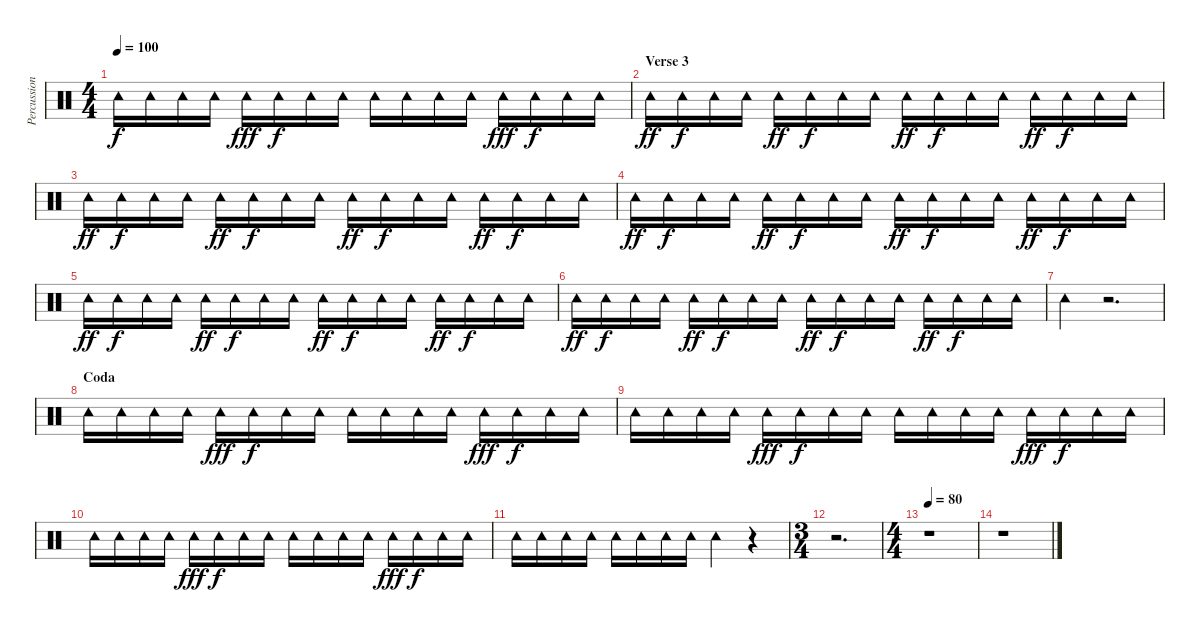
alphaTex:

\track ("Percussion" "Percussion") {instrument percussion}
\staff {score}
\articulation defaults
\ts (4 4)
\tempo 100
\clef neutral
\ks c "Tambourine (hit)".16{dy f} "Tambourine (hit)".16 "Tambourine (hit)".16 "Tambourine (hit)".16 "Tambourine (hit)".16{dy fff} "Tambourine (hit)".16{dy f} "Tambourine (hit)".16 "Tambourine (hit)".16 "Tambourine (hit)".16 "Tambourine (hit)".16 "Tambourine (hit)".16 "Tambourine (hit)".16 "Tambourine (hit)".16{dy fff} "Tambourine (hit)".16{dy f} "Tambourine (hit)".16 "Tambourine (hit)".16
|
\section ("" "Verse 3")
"Tambourine (hit)".16{dy ff} "Tambourine (hit)".16{dy f} "Tambourine (hit)".16 "Tambourine (hit)".16 "Tambourine (hit)".16{dy ff} "Tambourine (hit)".16{dy f} "Tambourine (hit)".16 "Tambourine (hit)".16 "Tambourine (hit)".16{dy ff} "Tambourine (hit)".16{dy f} "Tambourine (hit)".16 "Tambourine (hit)".16 "Tambourine (hit)".16{dy ff} "Tambourine (hit)".16{dy f} "Tambourine (hit)".16 "Tambourine (hit)".16 |
"Tambourine (hit)".16{dy ff} "Tambourine (hit)".16{dy f} "Tambourine (hit)".16 "Tambourine (hit)".16 "Tambourine (hit)".16{dy ff} "Tambourine (hit)".16{dy f} "Tambourine (hit)".16 "Tambourine (hit)".16 "Tambourine (hit)".16{dy ff} "Tambourine (hit)".16{dy f} "Tambourine (hit)".16 "Tambourine (hit)".16 "Tambourine (hit)".16{dy ff} "Tambourine (hit)".16{dy f} "Tambourine (hit)".16 "Tambourine (hit)".16 |
"Tambourine (hit)".16{dy ff} "Tambourine (hit)".16{dy f} "Tambourine (hit)".16 "Tambourine (hit)".16 "Tambourine (hit)".16{dy ff} "Tambourine (hit)".16{dy f} "Tambourine (hit)".16 "Tambourine (hit)".16 "Tambourine (hit)".16{dy ff} "Tambourine (hit)".16{dy f} "Tambourine (hit)".16 "Tambourine (hit)".16 "Tambourine (hit)".16{dy ff} "Tambourine (hit)".16{dy f} "Tambourine (hit)".16 "Tambourine (hit)".16 |
"Tambourine (hit)".16{dy ff} "Tambourine (hit)".16{dy f} "Tambourine (hit)".16 "Tambourine (hit)".16 "Tambourine (hit)".16{dy ff} "Tambourine (hit)".16{dy f} "Tambourine (hit)".16 "Tambourine (hit)".16 "Tambourine (hit)".16{dy ff} "Tambourine (hit)".16{dy f} "Tambourine (hit)".16 "Tambourine (hit)".16 "Tambourine (hit)".16{dy ff} "Tambourine (hit)".16{dy f} "Tambourine (hit)".16 "Tambourine (hit)".16 |
"Tambourine (hit)".16{dy ff} "Tambourine (hit)".16{dy f} "Tambourine (hit)".16 "Tambourine (hit)".16 "Tambourine (hit)".16{dy ff} "Tambourine (hit)".16{dy f} "Tambourine (hit)".16 "Tambourine (hit)".16 "Tambourine (hit)".16{dy ff} "Tambourine (hit)".16{dy f} "Tambourine (hit)".16 "Tambourine (hit)".16 "Tambourine (hit)".16{dy ff} "Tambourine (hit)".16{dy f} "Tambourine (hit)".16 "Tambourine (hit)".16 |
"Tambourine (hit)".4 r.2{d} |
\section ("" "Coda")
"Tambourine (hit)".16 "Tambourine (hit)".16 "Tambourine (hit)".16 "Tambourine (hit)".16 "Tambourine (hit)".16{dy fff} "Tambourine (hit)".16{dy f} "Tambourine (hit)".16 "Tambourine (hit)".16 "Tambourine (hit)".16 "Tambourine (hit)".16 "Tambourine (hit)".16 "Tambourine (hit)".16 "Tambourine (hit)".16{dy fff} "Tambourine (hit)".16{dy f} "Tambourine (hit)".16 "Tambourine (hit)".16 |
"Tambourine (hit)".16 "Tambourine (hit)".16 "Tambourine (hit)".16 "Tambourine (hit)".16 "Tambourine (hit)".16{dy fff} "Tambourine (hit)".16{dy f} "Tambourine (hit)".16 "Tambourine (hit)".16 "Tambourine (hit)".16 "Tambourine (hit)".16 "Tambourine (hit)".16 "Tambourine (hit)".16 "Tambourine (hit)".16{dy fff} "Tambourine (hit)".16{dy f} "Tambourine (hit)".16 "Tambourine (hit)".16 |
"Tambourine (hit)".16 "Tambourine (hit)".16 "Tambourine (hit)".16 "Tambourine (hit)".16 "Tambourine (hit)".16{dy fff} "Tambourine (hit)".16{dy f} "Tambourine (hit)".16 "Tambourine (hit)".16 "Tambourine (hit)".16 "Tambourine (hit)".16 "Tambourine (hit)".16 "Tambourine (hit)".16 "Tambourine (hit)".16{dy fff} "Tambourine (hit)".16{dy f} "Tambourine (hit)".16 "Tambourine (hit)".16 |
"Tambourine (hit)".16 "Tambourine (hit)".16 "Tambourine (hit)".16 "Tambourine (hit)".16 "Tambourine (hit)".16 "Tambourine (hit)".16 "Tambourine (hit)".16 "Tambourine (hit)".16 "Tambourine (hit)".4 r.4 |
\ts (3 4)
r.2{d} |
\ts (4 4)
\tempo 80
r.1 |
r.1
